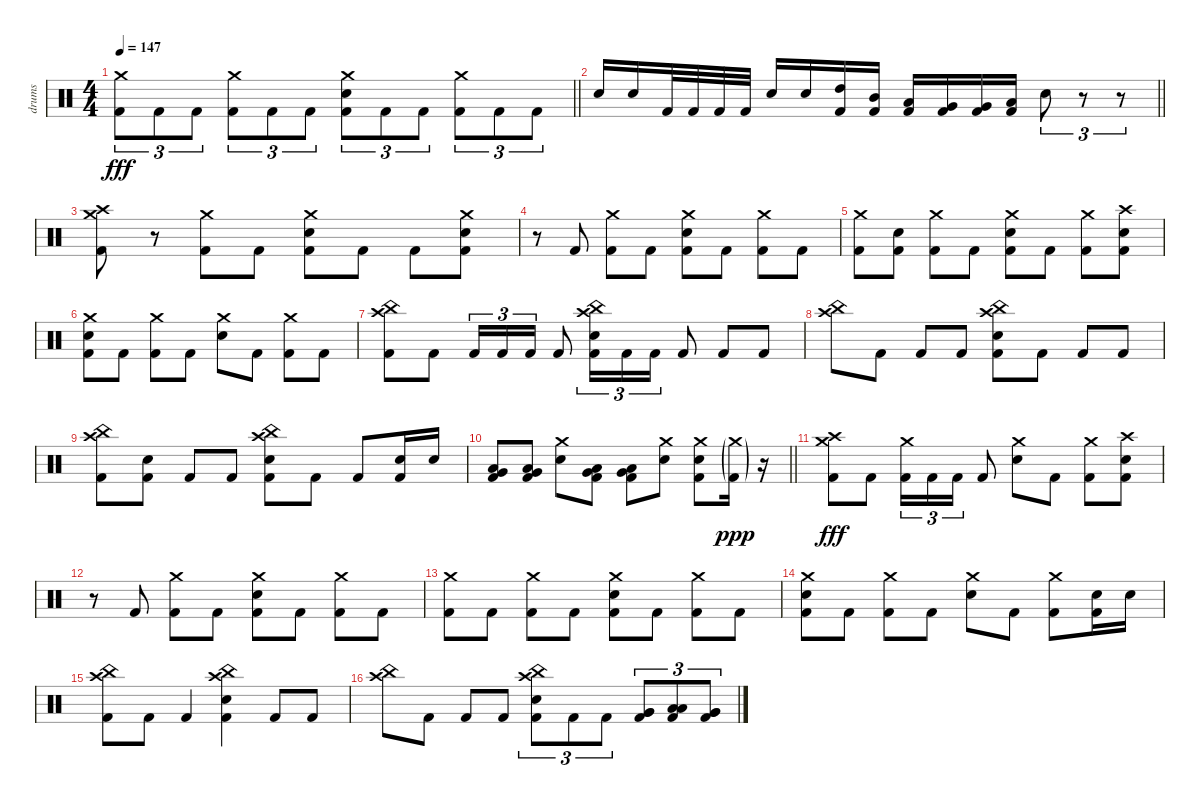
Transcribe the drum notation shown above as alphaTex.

\track ("drums" "drums") {instrument percussion}
\staff {score}
\articulation defaults
\ts (4 4)
\tempo 147
\clef neutral
\barLineRight lightlight
\ks c
("Crash medium (hit)" "Kick (hit) 2").8{tu (3 2) dy fff} "Kick (hit) 2".8{tu (3 2)} "Kick (hit) 2".8{tu (3 2)} ("Crash medium (hit)" "Kick (hit) 2").8{tu (3 2)} "Kick (hit) 2".8{tu (3 2)} "Kick (hit) 2".8{tu (3 2)} ("Crash medium (hit)" "Electric Snare (hit)" "Kick (hit) 2").8{tu (3 2)} "Kick (hit) 2".8{tu (3 2)} "Kick (hit) 2".8{tu (3 2)} ("Crash medium (hit)" "Kick (hit) 2").8{tu (3 2)} "Kick (hit) 2".8{tu (3 2)} "Kick (hit) 2".8{tu (3 2)} |
\barLineRight lightlight "Electric Snare (hit)".16 "Electric Snare (hit)".16 "Kick (hit) 2".32 "Kick (hit) 2".32 "Kick (hit) 2".32 "Kick (hit) 2".32 "Electric Snare (hit)".16 "Electric Snare (hit)".16
("High Tom (hit)" "Kick (hit) 2").16 ("Mid Tom (hit)" "Kick (hit) 2").16 ("Low Tom (hit)" "Kick (hit) 2").16 ("Very Low Tom (hit)" "Kick (hit) 2").16 ("Very Low Tom (hit)" "Kick (hit) 2").16 ("Low Floor Tom (hit)" "Kick (hit) 2").16 "Electric Snare (hit)".8{tu (3 2)} r.8{tu (3 2)} r.8{tu (3 2)} |
\section ("" "")
("Crash high (hit)" "Crash medium (hit)" "Kick (hit) 2").8 r.8 ("Crash medium (hit)" "Kick (hit) 2").8 "Kick (hit) 2".8 ("Crash medium (hit)" "Electric Snare (hit)" "Kick (hit) 2").8 "Kick (hit) 2".8 "Kick (hit) 2".8 ("Crash medium (hit)" "Electric Snare (hit)" "Kick (hit) 2").8 |
r.8 "Kick (hit) 2".8 ("Crash medium (hit)" "Kick (hit) 2").8 "Kick (hit) 2".8 ("Crash medium (hit)" "Electric Snare (hit)" "Kick (hit) 2").8 "Kick (hit) 2".8 ("Crash medium (hit)" "Kick (hit) 2").8 "Kick (hit) 2".8 |
("Crash medium (hit)" "Kick (hit) 2").8 ("Electric Snare (hit)" "Kick (hit) 2").8 ("Crash medium (hit)" "Kick (hit) 2").8 "Kick (hit) 2".8 ("Crash medium (hit)" "Electric Snare (hit)" "Kick (hit) 2").8 "Kick (hit) 2".8 ("Crash medium (hit)" "Kick (hit) 2").8 ("Crash high (hit)" "Electric Snare (hit)" "Kick (hit) 2").8 |
("Crash medium (hit)" "Electric Snare (hit)" "Kick (hit) 2").8 "Kick (hit) 2".8 ("Crash medium (hit)" "Kick (hit) 2").8 "Kick (hit) 2".8 ("Crash medium (hit)" "Electric Snare (hit)").8 "Kick (hit) 2".8 ("Crash medium (hit)" "Kick (hit) 2").8 "Kick (hit) 2".8 |
("China (hit)" "Crash high (hit)" "Kick (hit) 2").8 "Kick (hit) 2".8 "Kick (hit) 2".16{tu (3 2)} "Kick (hit) 2".16{tu (3 2)} "Kick (hit) 2".16{tu (3 2)} "Kick (hit) 2".8 ("China (hit)" "Crash high (hit)" "Electric Snare (hit)" "Kick (hit) 2").16{tu (3 2)} "Kick (hit) 2".16{tu (3 2)} "Kick (hit) 2".16{tu (3 2)} "Kick (hit) 2".8 "Kick (hit) 2".8 "Kick (hit) 2".8 |
("China (hit)" "Crash high (hit)").8 "Kick (hit) 2".8 "Kick (hit) 2".8 "Kick (hit) 2".8 ("Crash high (hit)" "China (hit)" "Electric Snare (hit)" "Kick (hit) 2").8 "Kick (hit) 2".8 "Kick (hit) 2".8 "Kick (hit) 2".8 |
("Crash high (hit)" "China (hit)" "Kick (hit) 2").8 ("Electric Snare (hit)" "Kick (hit) 2").8 "Kick (hit) 2".8 "Kick (hit) 2".8 ("Crash high (hit)" "China (hit)" "Electric Snare (hit)" "Kick (hit) 2").8 "Kick (hit) 2".8 "Kick (hit) 2".8 ("Electric Snare (hit)" "Kick (hit) 2").16 "Electric Snare (hit)".16 |
\barLineRight lightlight
("Very Low Tom (hit)" "Low Floor Tom (hit)" "Kick (hit) 2").8 ("Very Low Tom (hit)" "Low Floor Tom (hit)" "Kick (hit) 2").8 ("Crash medium (hit)" "Electric Snare (hit)").8 ("Very Low Tom (hit)" "Low Floor Tom (hit)" "Kick (hit) 2").8 ("Very Low Tom (hit)" "Low Floor Tom (hit)" "Kick (hit) 2").8 ("Crash medium (hit)" "Electric Snare (hit)").8 ("Crash medium (hit)" "Electric Snare (hit)" "Kick (hit) 2").8 ("Crash medium (hit)"{g} "Kick (hit) 2"{g}).16{dy ppp} r.16 |
\section ("" "")
("Crash medium (hit)" "Crash high (hit)" "Kick (hit) 2").8{dy fff} "Kick (hit) 2".8 ("Crash medium (hit)" "Kick (hit) 2").16{tu (3 2)} "Kick (hit) 2".16{tu (3 2)} "Kick (hit) 2".16{tu (3 2)} "Kick (hit) 2".8 ("Crash medium (hit)" "Electric Snare (hit)").8 "Kick (hit) 2".8 ("Crash medium (hit)" "Kick (hit) 2").8 ("Crash high (hit)" "Electric Snare (hit)" "Kick (hit) 2").8 |
r.8 "Kick (hit) 2".8 ("Crash medium (hit)" "Kick (hit) 2").8 "Kick (hit) 2".8 ("Crash medium (hit)" "Electric Snare (hit)" "Kick (hit) 2").8 "Kick (hit) 2".8 ("Crash medium (hit)" "Kick (hit) 2").8 "Kick (hit) 2".8 |
("Crash medium (hit)" "Kick (hit) 2").8 "Kick (hit) 2".8 ("Crash medium (hit)" "Kick (hit) 2").8 "Kick (hit) 2".8 ("Crash medium (hit)" "Electric Snare (hit)" "Kick (hit) 2").8 "Kick (hit) 2".8 ("Crash medium (hit)" "Kick (hit) 2").8 "Kick (hit) 2".8 |
("Crash medium (hit)" "Electric Snare (hit)" "Kick (hit) 2").8 "Kick (hit) 2".8 ("Crash medium (hit)" "Kick (hit) 2").8 "Kick (hit) 2".8 ("Crash medium (hit)" "Electric Snare (hit)").8 "Kick (hit) 2".8 ("Crash medium (hit)" "Kick (hit) 2").8 ("Electric Snare (hit)" "Kick (hit) 2").16 "Electric Snare (hit)".16 |
("Crash high (hit)" "China (hit)" "Kick (hit) 2").8 "Kick (hit) 2".8 "Kick (hit) 2".4 ("China (hit)" "Crash high (hit)" "Electric Snare (hit)" "Kick (hit) 2").4 "Kick (hit) 2".8 "Kick (hit) 2".8 |
("China (hit)" "Crash high (hit)").8 "Kick (hit) 2".8 "Kick (hit) 2".8 "Kick (hit) 2".8 ("China (hit)" "Crash high (hit)" "Electric Snare (hit)" "Kick (hit) 2").8{tu (3 2)} "Kick (hit) 2".8{tu (3 2)} "Kick (hit) 2".8{tu (3 2)} ("Very Low Tom (hit)" "Very Low Tom (hit)" "Kick (hit) 2").8{tu (3 2)} ("Low Floor Tom (hit)" "Low Floor Tom (hit)" "Kick (hit) 2").8{tu (3 2)} ("Very Low Tom (hit)" "Very Low Tom (hit)" "Kick (hit) 2").8{tu (3 2)}
